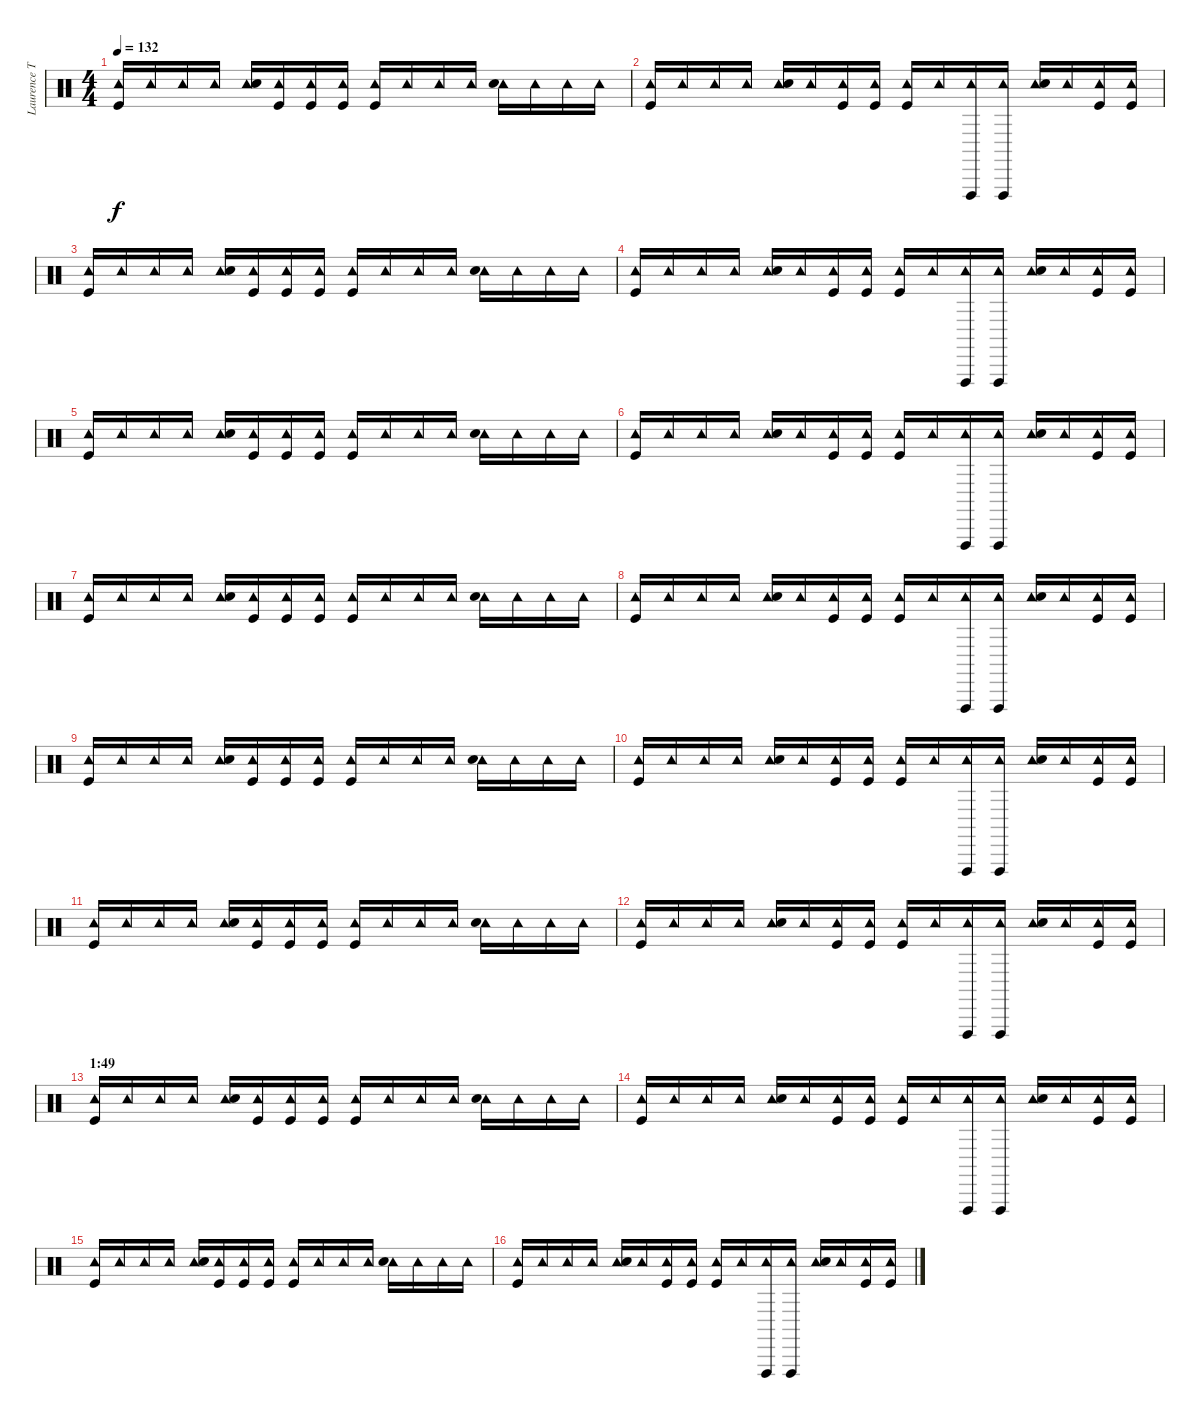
\track ("Laurence Tolhurst (drums)" "Laurence T") {instrument percussion}
\staff {score}
\articulation defaults
\ts (4 4)
\tempo 132
\clef neutral
\ks c
("Tambourine (hit)" "Kick (hit)").16{dy f} "Tambourine (hit)".16 "Tambourine (hit)".16 "Tambourine (hit)".16 ("Tambourine (hit)" "Snare (hit) 2").16 ("Tambourine (hit)" "Kick (hit)").16 ("Tambourine (hit)" "Kick (hit)").16 ("Tambourine (hit)" "Kick (hit)").16 ("Tambourine (hit)" "Kick (hit)").16 "Tambourine (hit)".16 "Tambourine (hit)".16 "Tambourine (hit)".16 ("Tambourine (hit)" "Snare (hit) 2").16 "Tambourine (hit)".16 "Tambourine (hit)".16 "Tambourine (hit)".16 |
("Tambourine (hit)" "Kick (hit)").16 "Tambourine (hit)".16 "Tambourine (hit)".16 "Tambourine (hit)".16 ("Tambourine (hit)" "Snare (hit) 2").16 "Tambourine (hit)".16 ("Tambourine (hit)" "Kick (hit)").16 ("Tambourine (hit)" "Kick (hit)").16 ("Tambourine (hit)" "Kick (hit)").16 "Tambourine (hit)".16 ("Tambourine (hit)" "Vibraslap (hit)").16 ("Tambourine (hit)" "Vibraslap (hit)").16 ("Tambourine (hit)" "Snare (hit) 2").16 "Tambourine (hit)".16 ("Tambourine (hit)" "Kick (hit)").16 ("Tambourine (hit)" "Kick (hit)").16 |
("Tambourine (hit)" "Kick (hit)").16 "Tambourine (hit)".16 "Tambourine (hit)".16 "Tambourine (hit)".16 ("Tambourine (hit)" "Snare (hit) 2").16 ("Tambourine (hit)" "Kick (hit)").16 ("Tambourine (hit)" "Kick (hit)").16 ("Tambourine (hit)" "Kick (hit)").16 ("Tambourine (hit)" "Kick (hit)").16 "Tambourine (hit)".16 "Tambourine (hit)".16 "Tambourine (hit)".16 ("Tambourine (hit)" "Snare (hit) 2").16 "Tambourine (hit)".16 "Tambourine (hit)".16 "Tambourine (hit)".16 |
("Tambourine (hit)" "Kick (hit)").16 "Tambourine (hit)".16 "Tambourine (hit)".16 "Tambourine (hit)".16 ("Tambourine (hit)" "Snare (hit) 2").16 "Tambourine (hit)".16 ("Tambourine (hit)" "Kick (hit)").16 ("Tambourine (hit)" "Kick (hit)").16 ("Tambourine (hit)" "Kick (hit)").16 "Tambourine (hit)".16 ("Tambourine (hit)" "Vibraslap (hit)").16 ("Tambourine (hit)" "Vibraslap (hit)").16 ("Tambourine (hit)" "Snare (hit) 2").16 "Tambourine (hit)".16 ("Tambourine (hit)" "Kick (hit)").16 ("Tambourine (hit)" "Kick (hit)").16 |
("Tambourine (hit)" "Kick (hit)").16 "Tambourine (hit)".16 "Tambourine (hit)".16 "Tambourine (hit)".16 ("Tambourine (hit)" "Snare (hit) 2").16 ("Tambourine (hit)" "Kick (hit)").16 ("Tambourine (hit)" "Kick (hit)").16 ("Tambourine (hit)" "Kick (hit)").16 ("Tambourine (hit)" "Kick (hit)").16 "Tambourine (hit)".16 "Tambourine (hit)".16 "Tambourine (hit)".16 ("Tambourine (hit)" "Snare (hit) 2").16 "Tambourine (hit)".16 "Tambourine (hit)".16 "Tambourine (hit)".16 |
("Tambourine (hit)" "Kick (hit)").16 "Tambourine (hit)".16 "Tambourine (hit)".16 "Tambourine (hit)".16 ("Tambourine (hit)" "Snare (hit) 2").16 "Tambourine (hit)".16 ("Tambourine (hit)" "Kick (hit)").16 ("Tambourine (hit)" "Kick (hit)").16 ("Tambourine (hit)" "Kick (hit)").16 "Tambourine (hit)".16 ("Tambourine (hit)" "Vibraslap (hit)").16 ("Tambourine (hit)" "Vibraslap (hit)").16 ("Tambourine (hit)" "Snare (hit) 2").16 "Tambourine (hit)".16 ("Tambourine (hit)" "Kick (hit)").16 ("Tambourine (hit)" "Kick (hit)").16 |
("Tambourine (hit)" "Kick (hit)").16 "Tambourine (hit)".16 "Tambourine (hit)".16 "Tambourine (hit)".16 ("Tambourine (hit)" "Snare (hit) 2").16 ("Tambourine (hit)" "Kick (hit)").16 ("Tambourine (hit)" "Kick (hit)").16 ("Tambourine (hit)" "Kick (hit)").16 ("Tambourine (hit)" "Kick (hit)").16 "Tambourine (hit)".16 "Tambourine (hit)".16 "Tambourine (hit)".16 ("Tambourine (hit)" "Snare (hit) 2").16 "Tambourine (hit)".16 "Tambourine (hit)".16 "Tambourine (hit)".16 |
("Tambourine (hit)" "Kick (hit)").16 "Tambourine (hit)".16 "Tambourine (hit)".16 "Tambourine (hit)".16 ("Tambourine (hit)" "Snare (hit) 2").16 "Tambourine (hit)".16 ("Tambourine (hit)" "Kick (hit)").16 ("Tambourine (hit)" "Kick (hit)").16 ("Tambourine (hit)" "Kick (hit)").16 "Tambourine (hit)".16 ("Tambourine (hit)" "Vibraslap (hit)").16 ("Tambourine (hit)" "Vibraslap (hit)").16 ("Tambourine (hit)" "Snare (hit) 2").16 "Tambourine (hit)".16 ("Tambourine (hit)" "Kick (hit)").16 ("Tambourine (hit)" "Kick (hit)").16 |
("Tambourine (hit)" "Kick (hit)").16 "Tambourine (hit)".16 "Tambourine (hit)".16 "Tambourine (hit)".16 ("Tambourine (hit)" "Snare (hit) 2").16 ("Tambourine (hit)" "Kick (hit)").16 ("Tambourine (hit)" "Kick (hit)").16 ("Tambourine (hit)" "Kick (hit)").16 ("Tambourine (hit)" "Kick (hit)").16 "Tambourine (hit)".16 "Tambourine (hit)".16 "Tambourine (hit)".16 ("Tambourine (hit)" "Snare (hit) 2").16 "Tambourine (hit)".16 "Tambourine (hit)".16 "Tambourine (hit)".16 |
("Tambourine (hit)" "Kick (hit)").16 "Tambourine (hit)".16 "Tambourine (hit)".16 "Tambourine (hit)".16 ("Tambourine (hit)" "Snare (hit) 2").16 "Tambourine (hit)".16 ("Tambourine (hit)" "Kick (hit)").16 ("Tambourine (hit)" "Kick (hit)").16 ("Tambourine (hit)" "Kick (hit)").16 "Tambourine (hit)".16 ("Tambourine (hit)" "Vibraslap (hit)").16 ("Tambourine (hit)" "Vibraslap (hit)").16 ("Tambourine (hit)" "Snare (hit) 2").16 "Tambourine (hit)".16 ("Tambourine (hit)" "Kick (hit)").16 ("Tambourine (hit)" "Kick (hit)").16 |
("Tambourine (hit)" "Kick (hit)").16 "Tambourine (hit)".16 "Tambourine (hit)".16 "Tambourine (hit)".16 ("Tambourine (hit)" "Snare (hit) 2").16 ("Tambourine (hit)" "Kick (hit)").16 ("Tambourine (hit)" "Kick (hit)").16 ("Tambourine (hit)" "Kick (hit)").16 ("Tambourine (hit)" "Kick (hit)").16 "Tambourine (hit)".16 "Tambourine (hit)".16 "Tambourine (hit)".16 ("Tambourine (hit)" "Snare (hit) 2").16 "Tambourine (hit)".16 "Tambourine (hit)".16 "Tambourine (hit)".16 |
("Tambourine (hit)" "Kick (hit)").16 "Tambourine (hit)".16 "Tambourine (hit)".16 "Tambourine (hit)".16 ("Tambourine (hit)" "Snare (hit) 2").16 "Tambourine (hit)".16 ("Tambourine (hit)" "Kick (hit)").16 ("Tambourine (hit)" "Kick (hit)").16 ("Tambourine (hit)" "Kick (hit)").16 "Tambourine (hit)".16 ("Tambourine (hit)" "Vibraslap (hit)").16 ("Tambourine (hit)" "Vibraslap (hit)").16 ("Tambourine (hit)" "Snare (hit) 2").16 "Tambourine (hit)".16 ("Tambourine (hit)" "Kick (hit)").16 ("Tambourine (hit)" "Kick (hit)").16 |
\section ("" "1:49")
("Tambourine (hit)" "Kick (hit)").16 "Tambourine (hit)".16 "Tambourine (hit)".16 "Tambourine (hit)".16 ("Tambourine (hit)" "Snare (hit) 2").16 ("Tambourine (hit)" "Kick (hit)").16 ("Tambourine (hit)" "Kick (hit)").16 ("Tambourine (hit)" "Kick (hit)").16 ("Tambourine (hit)" "Kick (hit)").16 "Tambourine (hit)".16 "Tambourine (hit)".16 "Tambourine (hit)".16 ("Tambourine (hit)" "Snare (hit) 2").16 "Tambourine (hit)".16 "Tambourine (hit)".16 "Tambourine (hit)".16 |
("Tambourine (hit)" "Kick (hit)").16 "Tambourine (hit)".16 "Tambourine (hit)".16 "Tambourine (hit)".16 ("Tambourine (hit)" "Snare (hit) 2").16 "Tambourine (hit)".16 ("Tambourine (hit)" "Kick (hit)").16 ("Tambourine (hit)" "Kick (hit)").16 ("Tambourine (hit)" "Kick (hit)").16 "Tambourine (hit)".16 ("Tambourine (hit)" "Vibraslap (hit)").16 ("Tambourine (hit)" "Vibraslap (hit)").16 ("Tambourine (hit)" "Snare (hit) 2").16 "Tambourine (hit)".16 ("Tambourine (hit)" "Kick (hit)").16 ("Tambourine (hit)" "Kick (hit)").16 |
("Tambourine (hit)" "Kick (hit)").16 "Tambourine (hit)".16 "Tambourine (hit)".16 "Tambourine (hit)".16 ("Tambourine (hit)" "Snare (hit) 2").16 ("Tambourine (hit)" "Kick (hit)").16 ("Tambourine (hit)" "Kick (hit)").16 ("Tambourine (hit)" "Kick (hit)").16 ("Tambourine (hit)" "Kick (hit)").16 "Tambourine (hit)".16 "Tambourine (hit)".16 "Tambourine (hit)".16 ("Tambourine (hit)" "Snare (hit) 2").16 "Tambourine (hit)".16 "Tambourine (hit)".16 "Tambourine (hit)".16 |
("Tambourine (hit)" "Kick (hit)").16 "Tambourine (hit)".16 "Tambourine (hit)".16 "Tambourine (hit)".16 ("Tambourine (hit)" "Snare (hit) 2").16 "Tambourine (hit)".16 ("Tambourine (hit)" "Kick (hit)").16 ("Tambourine (hit)" "Kick (hit)").16 ("Tambourine (hit)" "Kick (hit)").16 "Tambourine (hit)".16 ("Tambourine (hit)" "Vibraslap (hit)").16 ("Tambourine (hit)" "Vibraslap (hit)").16 ("Tambourine (hit)" "Snare (hit) 2").16 "Tambourine (hit)".16 ("Tambourine (hit)" "Kick (hit)").16 ("Tambourine (hit)" "Kick (hit)").16
